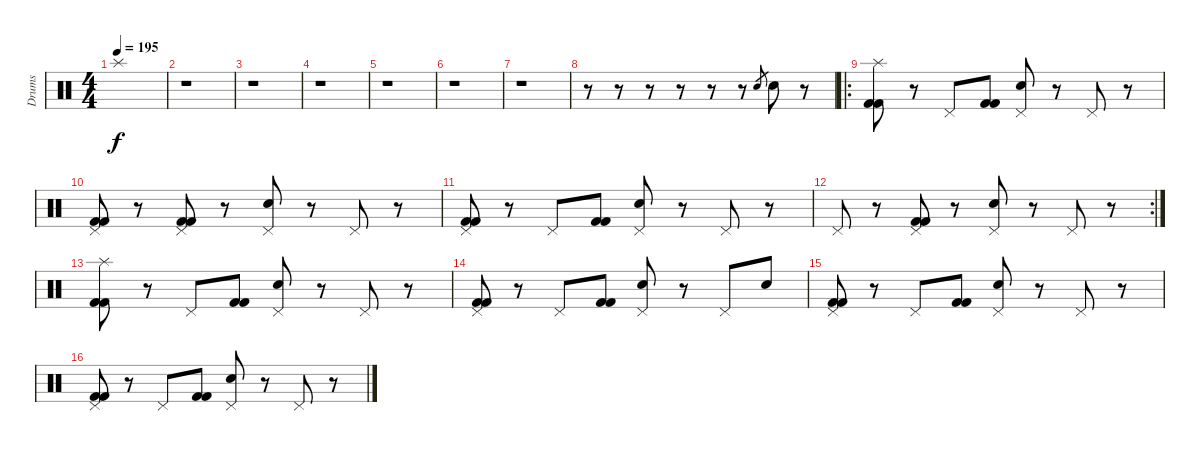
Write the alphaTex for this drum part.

\track ("Drums" "Drums") {instrument percussion}
\staff {score}
\articulation defaults
\ts (4 4)
\tempo 195
\clef neutral
\ks c "Splash (hit)".1{dy f}
|
r.1 |
r.1 |
r.1 |
r.1 |
r.1 |
r.1 |
r.8 r.8 r.8 r.8 r.8 r.8 "Electric Snare (hit)".8{gr} "Electric Snare (hit)".8 r.8 |
\ro
("Splash (hit)" "Kick (hit) 2" "Kick (hit) 2").8 r.8 "Pedal Hi-Hat (hit)".8 ("Kick (hit) 2" "Kick (hit) 2").8 ("Pedal Hi-Hat (hit)" "Electric Snare (hit)").8 r.8 "Pedal Hi-Hat (hit)".8 r.8 |
("Pedal Hi-Hat (hit)" "Kick (hit) 2" "Kick (hit) 2").8 r.8 ("Pedal Hi-Hat (hit)" "Kick (hit) 2" "Kick (hit) 2").8 r.8 ("Pedal Hi-Hat (hit)" "Electric Snare (hit)").8 r.8 "Pedal Hi-Hat (hit)".8 r.8 |
("Pedal Hi-Hat (hit)" "Kick (hit) 2" "Kick (hit) 2").8 r.8 "Pedal Hi-Hat (hit)".8 ("Kick (hit) 2" "Kick (hit) 2").8 ("Pedal Hi-Hat (hit)" "Electric Snare (hit)").8 r.8 "Pedal Hi-Hat (hit)".8 r.8 |
\rc 2 "Pedal Hi-Hat (hit)".8
r.8 ("Pedal Hi-Hat (hit)" "Kick (hit) 2" "Kick (hit) 2").8 r.8 ("Pedal Hi-Hat (hit)" "Electric Snare (hit)").8 r.8 "Pedal Hi-Hat (hit)".8 r.8 |
("Splash (hit)" "Kick (hit) 2" "Kick (hit) 2").8 r.8 "Pedal Hi-Hat (hit)".8 ("Kick (hit) 2" "Kick (hit) 2").8 ("Pedal Hi-Hat (hit)" "Electric Snare (hit)").8 r.8 "Pedal Hi-Hat (hit)".8 r.8 |
("Pedal Hi-Hat (hit)" "Kick (hit) 2" "Kick (hit) 2").8 r.8 "Pedal Hi-Hat (hit)".8 ("Kick (hit) 2" "Kick (hit) 2").8 ("Pedal Hi-Hat (hit)" "Electric Snare (hit)").8 r.8 "Pedal Hi-Hat (hit)".8 "Electric Snare (hit)".8 |
("Pedal Hi-Hat (hit)" "Kick (hit) 2" "Kick (hit) 2").8 r.8 "Pedal Hi-Hat (hit)".8 ("Kick (hit) 2" "Kick (hit) 2").8 ("Pedal Hi-Hat (hit)" "Electric Snare (hit)").8 r.8 "Pedal Hi-Hat (hit)".8 r.8 |
("Pedal Hi-Hat (hit)" "Kick (hit) 2" "Kick (hit) 2").8 r.8 "Pedal Hi-Hat (hit)".8 ("Kick (hit) 2" "Kick (hit) 2").8 ("Pedal Hi-Hat (hit)" "Electric Snare (hit)").8 r.8 "Pedal Hi-Hat (hit)".8 r.8
